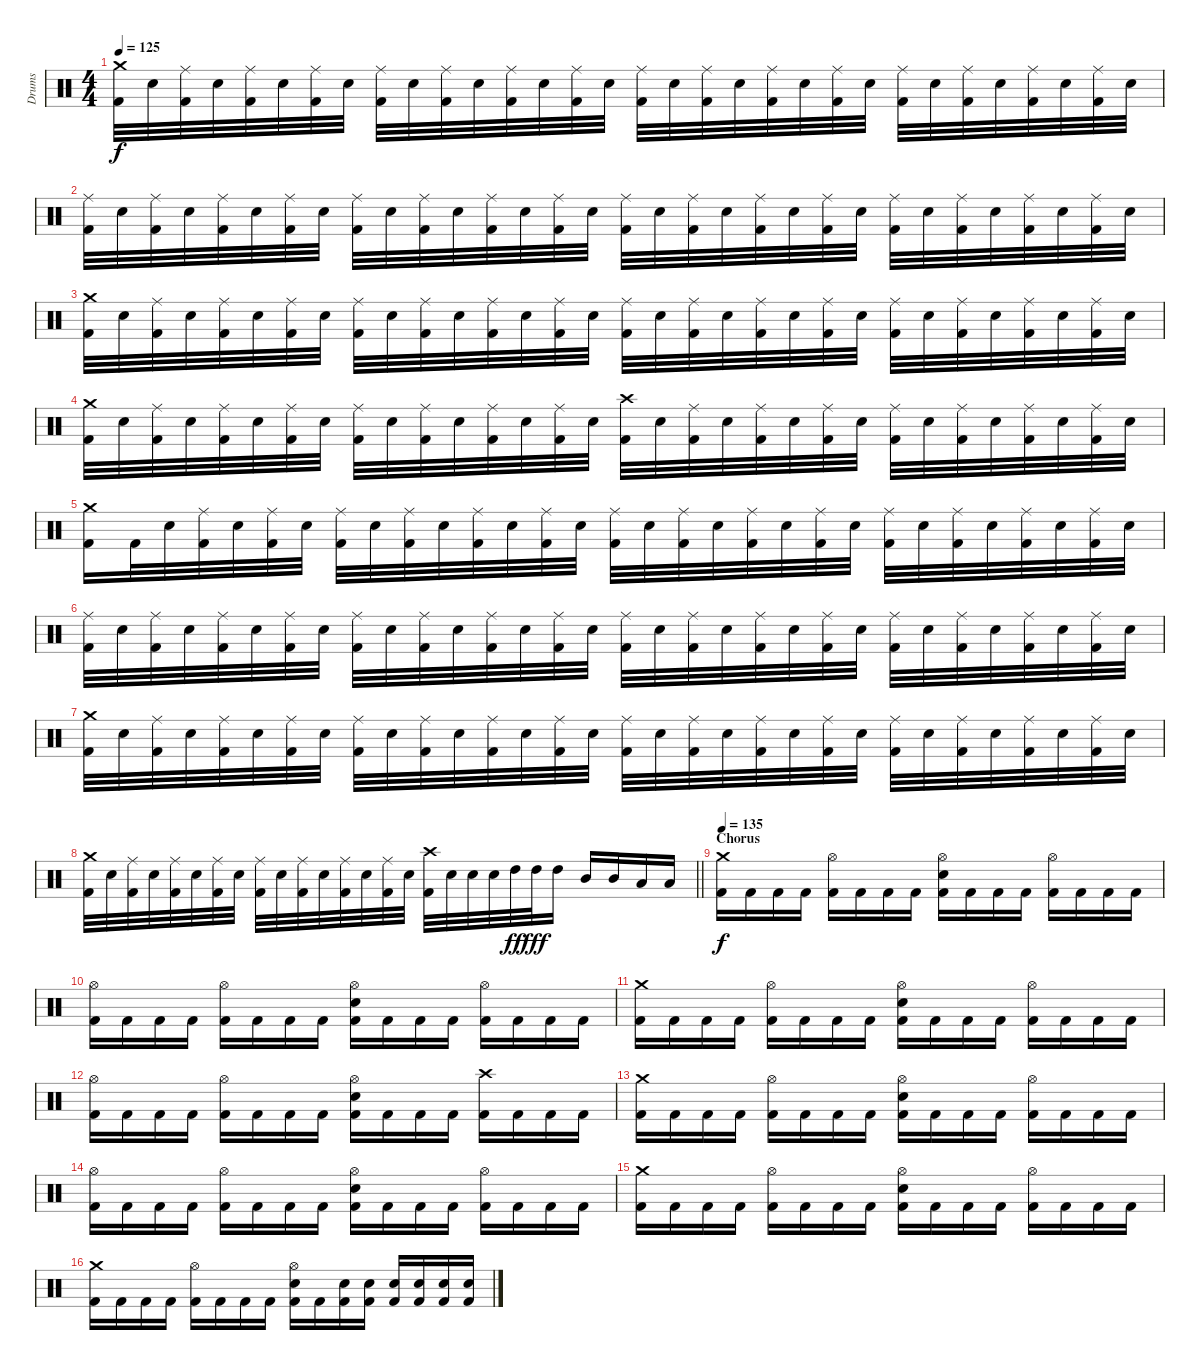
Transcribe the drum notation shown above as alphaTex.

\track ("Drums" "Drums") {instrument percussion}
\staff {score}
\articulation defaults
\ts (4 4)
\tempo 125
\clef neutral
\ks c
("Kick (hit) 2" "Crash medium (hit)").32{dy f} "Electric Snare (hit)".32 ("Kick (hit) 2" "Ride (middle)").32 "Electric Snare (hit)".32 ("Kick (hit) 2" "Ride (middle)").32 "Electric Snare (hit)".32 ("Kick (hit) 2" "Ride (middle)").32 "Electric Snare (hit)".32 ("Kick (hit) 2" "Ride (middle)").32 "Electric Snare (hit)".32 ("Kick (hit) 2" "Ride (middle)").32 "Electric Snare (hit)".32 ("Kick (hit) 2" "Ride (middle)").32 "Electric Snare (hit)".32 ("Kick (hit) 2" "Ride (middle)").32 "Electric Snare (hit)".32 ("Kick (hit) 2" "Ride (middle)").32 "Electric Snare (hit)".32 ("Kick (hit) 2" "Ride (middle)").32 "Electric Snare (hit)".32 ("Kick (hit) 2" "Ride (middle)").32 "Electric Snare (hit)".32 ("Kick (hit) 2" "Ride (middle)").32 "Electric Snare (hit)".32 ("Kick (hit) 2" "Ride (middle)").32 "Electric Snare (hit)".32 ("Kick (hit) 2" "Ride (middle)").32 "Electric Snare (hit)".32 ("Kick (hit) 2" "Ride (middle)").32 "Electric Snare (hit)".32 ("Kick (hit) 2" "Ride (middle)").32 "Electric Snare (hit)".32 |
("Kick (hit) 2" "Ride (middle)").32 "Electric Snare (hit)".32 ("Kick (hit) 2" "Ride (middle)").32 "Electric Snare (hit)".32 ("Kick (hit) 2" "Ride (middle)").32 "Electric Snare (hit)".32 ("Kick (hit) 2" "Ride (middle)").32 "Electric Snare (hit)".32 ("Kick (hit) 2" "Ride (middle)").32 "Electric Snare (hit)".32 ("Kick (hit) 2" "Ride (middle)").32 "Electric Snare (hit)".32 ("Kick (hit) 2" "Ride (middle)").32 "Electric Snare (hit)".32 ("Kick (hit) 2" "Ride (middle)").32 "Electric Snare (hit)".32 ("Kick (hit) 2" "Ride (middle)").32 "Electric Snare (hit)".32 ("Kick (hit) 2" "Ride (middle)").32 "Electric Snare (hit)".32 ("Kick (hit) 2" "Ride (middle)").32 "Electric Snare (hit)".32 ("Kick (hit) 2" "Ride (middle)").32 "Electric Snare (hit)".32 ("Kick (hit) 2" "Ride (middle)").32 "Electric Snare (hit)".32 ("Kick (hit) 2" "Ride (middle)").32 "Electric Snare (hit)".32 ("Kick (hit) 2" "Ride (middle)").32 "Electric Snare (hit)".32 ("Kick (hit) 2" "Ride (middle)").32 "Electric Snare (hit)".32 |
("Kick (hit) 2" "Crash medium (hit)").32 "Electric Snare (hit)".32 ("Kick (hit) 2" "Ride (middle)").32 "Electric Snare (hit)".32 ("Kick (hit) 2" "Ride (middle)").32 "Electric Snare (hit)".32 ("Kick (hit) 2" "Ride (middle)").32 "Electric Snare (hit)".32 ("Kick (hit) 2" "Ride (middle)").32 "Electric Snare (hit)".32 ("Kick (hit) 2" "Ride (middle)").32 "Electric Snare (hit)".32 ("Kick (hit) 2" "Ride (middle)").32 "Electric Snare (hit)".32 ("Kick (hit) 2" "Ride (middle)").32 "Electric Snare (hit)".32 ("Kick (hit) 2" "Ride (middle)").32 "Electric Snare (hit)".32 ("Kick (hit) 2" "Ride (middle)").32 "Electric Snare (hit)".32 ("Kick (hit) 2" "Ride (middle)").32 "Electric Snare (hit)".32 ("Kick (hit) 2" "Ride (middle)").32 "Electric Snare (hit)".32 ("Kick (hit) 2" "Ride (middle)").32 "Electric Snare (hit)".32 ("Kick (hit) 2" "Ride (middle)").32 "Electric Snare (hit)".32 ("Kick (hit) 2" "Ride (middle)").32 "Electric Snare (hit)".32 ("Kick (hit) 2" "Ride (middle)").32 "Electric Snare (hit)".32 |
("Kick (hit) 2" "Crash medium (hit)").32 "Electric Snare (hit)".32 ("Kick (hit) 2" "Ride (middle)").32 "Electric Snare (hit)".32 ("Kick (hit) 2" "Ride (middle)").32 "Electric Snare (hit)".32 ("Kick (hit) 2" "Ride (middle)").32 "Electric Snare (hit)".32 ("Kick (hit) 2" "Ride (middle)").32 "Electric Snare (hit)".32 ("Kick (hit) 2" "Ride (middle)").32 "Electric Snare (hit)".32 ("Kick (hit) 2" "Ride (middle)").32 "Electric Snare (hit)".32 ("Kick (hit) 2" "Ride (middle)").32 "Electric Snare (hit)".32 ("Kick (hit) 2" "Crash high (hit)").32 "Electric Snare (hit)".32 ("Kick (hit) 2" "Ride (middle)").32 "Electric Snare (hit)".32 ("Kick (hit) 2" "Ride (middle)").32 "Electric Snare (hit)".32 ("Kick (hit) 2" "Ride (middle)").32 "Electric Snare (hit)".32 ("Kick (hit) 2" "Ride (middle)").32 "Electric Snare (hit)".32 ("Kick (hit) 2" "Ride (middle)").32 "Electric Snare (hit)".32 ("Kick (hit) 2" "Ride (middle)").32 "Electric Snare (hit)".32 ("Kick (hit) 2" "Ride (middle)").32 "Electric Snare (hit)".32 |
("Kick (hit) 2" "Crash medium (hit)").16 "Kick (hit) 2".32 "Electric Snare (hit)".32 ("Kick (hit) 2" "Ride (middle)").32 "Electric Snare (hit)".32 ("Kick (hit) 2" "Ride (middle)").32 "Electric Snare (hit)".32 ("Kick (hit) 2" "Ride (middle)").32 "Electric Snare (hit)".32 ("Kick (hit) 2" "Ride (middle)").32 "Electric Snare (hit)".32 ("Kick (hit) 2" "Ride (middle)").32 "Electric Snare (hit)".32 ("Kick (hit) 2" "Ride (middle)").32 "Electric Snare (hit)".32 ("Kick (hit) 2" "Ride (middle)").32 "Electric Snare (hit)".32 ("Kick (hit) 2" "Ride (middle)").32 "Electric Snare (hit)".32 ("Kick (hit) 2" "Ride (middle)").32 "Electric Snare (hit)".32 ("Kick (hit) 2" "Ride (middle)").32 "Electric Snare (hit)".32 ("Kick (hit) 2" "Ride (middle)").32 "Electric Snare (hit)".32 ("Kick (hit) 2" "Ride (middle)").32 "Electric Snare (hit)".32 ("Kick (hit) 2" "Ride (middle)").32 "Electric Snare (hit)".32 ("Kick (hit) 2" "Ride (middle)").32 "Electric Snare (hit)".32 |
("Kick (hit) 2" "Ride (middle)").32 "Electric Snare (hit)".32 ("Kick (hit) 2" "Ride (middle)").32 "Electric Snare (hit)".32 ("Kick (hit) 2" "Ride (middle)").32 "Electric Snare (hit)".32 ("Kick (hit) 2" "Ride (middle)").32 "Electric Snare (hit)".32 ("Kick (hit) 2" "Ride (middle)").32 "Electric Snare (hit)".32 ("Kick (hit) 2" "Ride (middle)").32 "Electric Snare (hit)".32 ("Kick (hit) 2" "Ride (middle)").32 "Electric Snare (hit)".32 ("Kick (hit) 2" "Ride (middle)").32 "Electric Snare (hit)".32 ("Kick (hit) 2" "Ride (middle)").32 "Electric Snare (hit)".32 ("Kick (hit) 2" "Ride (middle)").32 "Electric Snare (hit)".32 ("Kick (hit) 2" "Ride (middle)").32 "Electric Snare (hit)".32 ("Kick (hit) 2" "Ride (middle)").32 "Electric Snare (hit)".32 ("Kick (hit) 2" "Ride (middle)").32 "Electric Snare (hit)".32 ("Kick (hit) 2" "Ride (middle)").32 "Electric Snare (hit)".32 ("Kick (hit) 2" "Ride (middle)").32 "Electric Snare (hit)".32 ("Kick (hit) 2" "Ride (middle)").32 "Electric Snare (hit)".32 |
("Kick (hit) 2" "Crash medium (hit)").32 "Electric Snare (hit)".32 ("Kick (hit) 2" "Ride (middle)").32 "Electric Snare (hit)".32 ("Kick (hit) 2" "Ride (middle)").32 "Electric Snare (hit)".32 ("Kick (hit) 2" "Ride (middle)").32 "Electric Snare (hit)".32 ("Kick (hit) 2" "Ride (middle)").32 "Electric Snare (hit)".32 ("Kick (hit) 2" "Ride (middle)").32 "Electric Snare (hit)".32 ("Kick (hit) 2" "Ride (middle)").32 "Electric Snare (hit)".32 ("Kick (hit) 2" "Ride (middle)").32 "Electric Snare (hit)".32 ("Kick (hit) 2" "Ride (middle)").32 "Electric Snare (hit)".32 ("Kick (hit) 2" "Ride (middle)").32 "Electric Snare (hit)".32 ("Kick (hit) 2" "Ride (middle)").32 "Electric Snare (hit)".32 ("Kick (hit) 2" "Ride (middle)").32 "Electric Snare (hit)".32 ("Kick (hit) 2" "Ride (middle)").32 "Electric Snare (hit)".32 ("Kick (hit) 2" "Ride (middle)").32 "Electric Snare (hit)".32 ("Kick (hit) 2" "Ride (middle)").32 "Electric Snare (hit)".32 ("Kick (hit) 2" "Ride (middle)").32 "Electric Snare (hit)".32 |
\barLineRight lightlight
("Kick (hit) 2" "Crash medium (hit)").32 "Electric Snare (hit)".32 ("Kick (hit) 2" "Ride (middle)").32 "Electric Snare (hit)".32 ("Kick (hit) 2" "Ride (middle)").32 "Electric Snare (hit)".32 ("Kick (hit) 2" "Ride (middle)").32 "Electric Snare (hit)".32 ("Kick (hit) 2" "Ride (middle)").32 "Electric Snare (hit)".32 ("Kick (hit) 2" "Ride (middle)").32 "Electric Snare (hit)".32 ("Kick (hit) 2" "Ride (middle)").32 "Electric Snare (hit)".32 ("Kick (hit) 2" "Ride (middle)").32 "Electric Snare (hit)".32 ("Kick (hit) 2" "Crash high (hit)").32 "Electric Snare (hit)".32 "Electric Snare (hit)".32 "Electric Snare (hit)".32 "High Tom (hit)".32{dy ff} "High Tom (hit)".32{dy fff} "High Tom (hit)".16 "Mid Tom (hit)".16 "Mid Tom (hit)".16 "Low Tom (hit)".16 "Low Tom (hit)".16 |
\section ("" "Chorus")
\tempo 135
("Kick (hit) 2" "Crash medium (hit)").16{dy f} "Kick (hit) 2".16 "Kick (hit) 2".16 "Kick (hit) 2".16 ("Kick (hit) 2" "Hi-Hat (open)").16 "Kick (hit) 2".16 "Kick (hit) 2".16 "Kick (hit) 2".16 ("Kick (hit) 2" "Electric Snare (hit)" "Hi-Hat (open)").16 "Kick (hit) 2".16 "Kick (hit) 2".16 "Kick (hit) 2".16 ("Kick (hit) 2" "Hi-Hat (open)").16 "Kick (hit) 2".16 "Kick (hit) 2".16 "Kick (hit) 2".16 |
("Kick (hit) 2" "Hi-Hat (open)").16 "Kick (hit) 2".16 "Kick (hit) 2".16 "Kick (hit) 2".16 ("Kick (hit) 2" "Hi-Hat (open)").16 "Kick (hit) 2".16 "Kick (hit) 2".16 "Kick (hit) 2".16 ("Kick (hit) 2" "Electric Snare (hit)" "Hi-Hat (open)").16 "Kick (hit) 2".16 "Kick (hit) 2".16 "Kick (hit) 2".16 ("Kick (hit) 2" "Hi-Hat (open)").16 "Kick (hit) 2".16 "Kick (hit) 2".16 "Kick (hit) 2".16 |
("Kick (hit) 2" "Crash medium (hit)").16 "Kick (hit) 2".16 "Kick (hit) 2".16 "Kick (hit) 2".16 ("Kick (hit) 2" "Hi-Hat (open)").16 "Kick (hit) 2".16 "Kick (hit) 2".16 "Kick (hit) 2".16 ("Kick (hit) 2" "Electric Snare (hit)" "Hi-Hat (open)").16 "Kick (hit) 2".16 "Kick (hit) 2".16 "Kick (hit) 2".16 ("Kick (hit) 2" "Hi-Hat (open)").16 "Kick (hit) 2".16 "Kick (hit) 2".16 "Kick (hit) 2".16 |
("Kick (hit) 2" "Hi-Hat (open)").16 "Kick (hit) 2".16 "Kick (hit) 2".16 "Kick (hit) 2".16 ("Kick (hit) 2" "Hi-Hat (open)").16 "Kick (hit) 2".16 "Kick (hit) 2".16 "Kick (hit) 2".16 ("Kick (hit) 2" "Electric Snare (hit)" "Hi-Hat (open)").16 "Kick (hit) 2".16 "Kick (hit) 2".16 "Kick (hit) 2".16 ("Kick (hit) 2" "Crash high (hit)").16 "Kick (hit) 2".16 "Kick (hit) 2".16 "Kick (hit) 2".16 |
("Kick (hit) 2" "Crash medium (hit)").16 "Kick (hit) 2".16 "Kick (hit) 2".16 "Kick (hit) 2".16 ("Kick (hit) 2" "Hi-Hat (open)").16 "Kick (hit) 2".16 "Kick (hit) 2".16 "Kick (hit) 2".16 ("Kick (hit) 2" "Electric Snare (hit)" "Hi-Hat (open)").16 "Kick (hit) 2".16 "Kick (hit) 2".16 "Kick (hit) 2".16 ("Kick (hit) 2" "Hi-Hat (open)").16 "Kick (hit) 2".16 "Kick (hit) 2".16 "Kick (hit) 2".16 |
("Kick (hit) 2" "Hi-Hat (open)").16 "Kick (hit) 2".16 "Kick (hit) 2".16 "Kick (hit) 2".16 ("Kick (hit) 2" "Hi-Hat (open)").16 "Kick (hit) 2".16 "Kick (hit) 2".16 "Kick (hit) 2".16 ("Kick (hit) 2" "Electric Snare (hit)" "Hi-Hat (open)").16 "Kick (hit) 2".16 "Kick (hit) 2".16 "Kick (hit) 2".16 ("Kick (hit) 2" "Hi-Hat (open)").16 "Kick (hit) 2".16 "Kick (hit) 2".16 "Kick (hit) 2".16 |
("Kick (hit) 2" "Crash medium (hit)").16 "Kick (hit) 2".16 "Kick (hit) 2".16 "Kick (hit) 2".16 ("Kick (hit) 2" "Hi-Hat (open)").16 "Kick (hit) 2".16 "Kick (hit) 2".16 "Kick (hit) 2".16 ("Kick (hit) 2" "Electric Snare (hit)" "Hi-Hat (open)").16 "Kick (hit) 2".16 "Kick (hit) 2".16 "Kick (hit) 2".16 ("Kick (hit) 2" "Hi-Hat (open)").16 "Kick (hit) 2".16 "Kick (hit) 2".16 "Kick (hit) 2".16 |
("Kick (hit) 2" "Crash medium (hit)").16 "Kick (hit) 2".16 "Kick (hit) 2".16 "Kick (hit) 2".16 ("Kick (hit) 2" "Hi-Hat (open)").16 "Kick (hit) 2".16 "Kick (hit) 2".16 "Kick (hit) 2".16 ("Kick (hit) 2" "Electric Snare (hit)" "Hi-Hat (open)").16 "Kick (hit) 2".16 ("Kick (hit) 2" "Electric Snare (hit)").16 ("Kick (hit) 2" "Electric Snare (hit)").16 ("Kick (hit) 2" "Electric Snare (hit)").16 ("Kick (hit) 2" "Electric Snare (hit)").16 ("Kick (hit) 2" "Electric Snare (hit)").16 ("Kick (hit) 2" "Electric Snare (hit)").16
